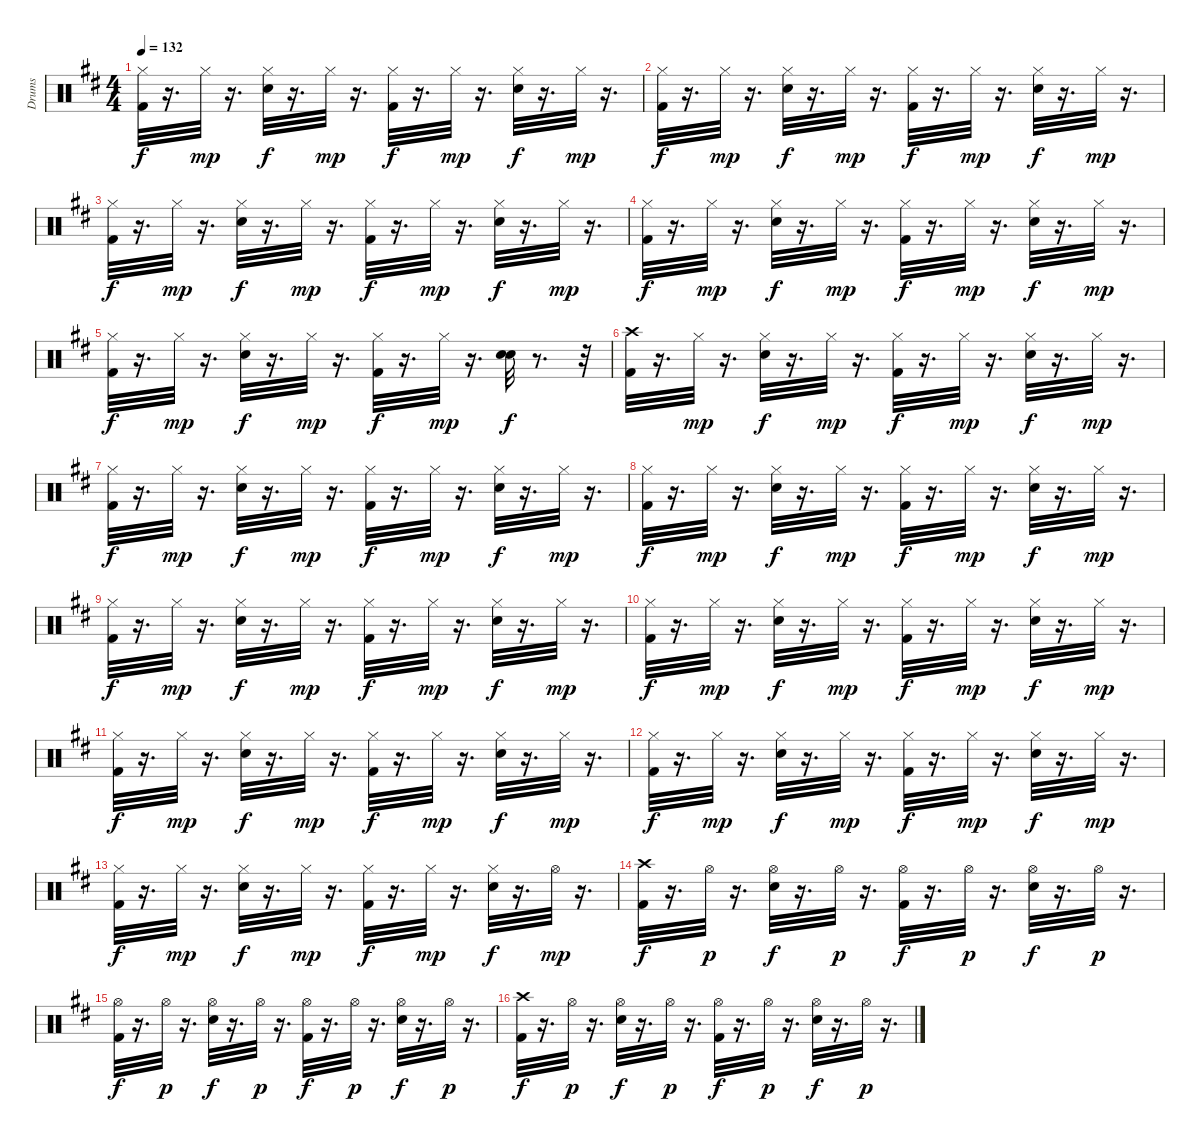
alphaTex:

\track ("Drums" "Drums") {instrument percussion}
\staff {score}
\articulation defaults
\ts (4 4)
\tempo 132
\clef neutral
\ks d
("Hi-Hat (closed)" "Kick (hit) 2").32{dy f} r.16{d} "Hi-Hat (closed)".32{dy mp} r.16{d} ("Hi-Hat (closed)" "Electric Snare (hit)").32{dy f} r.16{d} "Hi-Hat (closed)".32{dy mp} r.16{d} ("Hi-Hat (closed)" "Kick (hit) 2").32{dy f} r.16{d} "Hi-Hat (closed)".32{dy mp} r.16{d} ("Hi-Hat (closed)" "Electric Snare (hit)").32{dy f} r.16{d} "Hi-Hat (closed)".32{dy mp} r.16{d} |
("Hi-Hat (closed)" "Kick (hit) 2").32{dy f} r.16{d} "Hi-Hat (closed)".32{dy mp} r.16{d} ("Hi-Hat (closed)" "Electric Snare (hit)").32{dy f} r.16{d} "Hi-Hat (closed)".32{dy mp} r.16{d} ("Hi-Hat (closed)" "Kick (hit) 2").32{dy f} r.16{d} "Hi-Hat (closed)".32{dy mp} r.16{d} ("Hi-Hat (closed)" "Electric Snare (hit)").32{dy f} r.16{d} "Hi-Hat (closed)".32{dy mp} r.16{d} |
("Hi-Hat (closed)" "Kick (hit) 2").32{dy f} r.16{d} "Hi-Hat (closed)".32{dy mp} r.16{d} ("Hi-Hat (closed)" "Electric Snare (hit)").32{dy f} r.16{d} "Hi-Hat (closed)".32{dy mp} r.16{d} ("Hi-Hat (closed)" "Kick (hit) 2").32{dy f} r.16{d} "Hi-Hat (closed)".32{dy mp} r.16{d} ("Hi-Hat (closed)" "Electric Snare (hit)").32{dy f} r.16{d} "Hi-Hat (closed)".32{dy mp} r.16{d} |
("Hi-Hat (closed)" "Kick (hit) 2").32{dy f} r.16{d} "Hi-Hat (closed)".32{dy mp} r.16{d} ("Hi-Hat (closed)" "Electric Snare (hit)").32{dy f} r.16{d} "Hi-Hat (closed)".32{dy mp} r.16{d} ("Hi-Hat (closed)" "Kick (hit) 2").32{dy f} r.16{d} "Hi-Hat (closed)".32{dy mp} r.16{d} ("Hi-Hat (closed)" "Electric Snare (hit)").32{dy f} r.16{d} "Hi-Hat (closed)".32{dy mp} r.16{d} |
("Hi-Hat (closed)" "Kick (hit) 2").32{dy f} r.16{d} "Hi-Hat (closed)".32{dy mp} r.16{d} ("Hi-Hat (closed)" "Electric Snare (hit)").32{dy f} r.16{d} "Hi-Hat (closed)".32{dy mp} r.16{d} ("Hi-Hat (closed)" "Kick (hit) 2").32{dy f} r.16{d} "Hi-Hat (closed)".32{dy mp} r.16{d} ("Electric Snare (hit)" "Snare (hit) 2").32{dy f} r.8{d} r.32 |
("Crash high (hit)" "Kick (hit) 2").32 r.16{d} "Hi-Hat (closed)".32{dy mp} r.16{d} ("Hi-Hat (closed)" "Electric Snare (hit)").32{dy f} r.16{d} "Hi-Hat (closed)".32{dy mp} r.16{d} ("Hi-Hat (closed)" "Kick (hit) 2").32{dy f} r.16{d} "Hi-Hat (closed)".32{dy mp} r.16{d} ("Hi-Hat (closed)" "Electric Snare (hit)").32{dy f} r.16{d} "Hi-Hat (closed)".32{dy mp} r.16{d} |
("Hi-Hat (closed)" "Kick (hit) 2").32{dy f} r.16{d} "Hi-Hat (closed)".32{dy mp} r.16{d} ("Hi-Hat (closed)" "Electric Snare (hit)").32{dy f} r.16{d} "Hi-Hat (closed)".32{dy mp} r.16{d} ("Hi-Hat (closed)" "Kick (hit) 2").32{dy f} r.16{d} "Hi-Hat (closed)".32{dy mp} r.16{d} ("Hi-Hat (closed)" "Electric Snare (hit)").32{dy f} r.16{d} "Hi-Hat (closed)".32{dy mp} r.16{d} |
("Hi-Hat (closed)" "Kick (hit) 2").32{dy f} r.16{d} "Hi-Hat (closed)".32{dy mp} r.16{d} ("Hi-Hat (closed)" "Electric Snare (hit)").32{dy f} r.16{d} "Hi-Hat (closed)".32{dy mp} r.16{d} ("Hi-Hat (closed)" "Kick (hit) 2").32{dy f} r.16{d} "Hi-Hat (closed)".32{dy mp} r.16{d} ("Hi-Hat (closed)" "Electric Snare (hit)").32{dy f} r.16{d} "Hi-Hat (closed)".32{dy mp} r.16{d} |
("Hi-Hat (closed)" "Kick (hit) 2").32{dy f} r.16{d} "Hi-Hat (closed)".32{dy mp} r.16{d} ("Hi-Hat (closed)" "Electric Snare (hit)").32{dy f} r.16{d} "Hi-Hat (closed)".32{dy mp} r.16{d} ("Hi-Hat (closed)" "Kick (hit) 2").32{dy f} r.16{d} "Hi-Hat (closed)".32{dy mp} r.16{d} ("Hi-Hat (closed)" "Electric Snare (hit)").32{dy f} r.16{d} "Hi-Hat (closed)".32{dy mp} r.16{d} |
("Hi-Hat (closed)" "Kick (hit) 2").32{dy f} r.16{d} "Hi-Hat (closed)".32{dy mp} r.16{d} ("Hi-Hat (closed)" "Electric Snare (hit)").32{dy f} r.16{d} "Hi-Hat (closed)".32{dy mp} r.16{d} ("Hi-Hat (closed)" "Kick (hit) 2").32{dy f} r.16{d} "Hi-Hat (closed)".32{dy mp} r.16{d} ("Hi-Hat (closed)" "Electric Snare (hit)").32{dy f} r.16{d} "Hi-Hat (closed)".32{dy mp} r.16{d} |
("Hi-Hat (closed)" "Kick (hit) 2").32{dy f} r.16{d} "Hi-Hat (closed)".32{dy mp} r.16{d} ("Hi-Hat (closed)" "Electric Snare (hit)").32{dy f} r.16{d} "Hi-Hat (closed)".32{dy mp} r.16{d} ("Hi-Hat (closed)" "Kick (hit) 2").32{dy f} r.16{d} "Hi-Hat (closed)".32{dy mp} r.16{d} ("Hi-Hat (closed)" "Electric Snare (hit)").32{dy f} r.16{d} "Hi-Hat (closed)".32{dy mp} r.16{d} |
("Hi-Hat (closed)" "Kick (hit) 2").32{dy f} r.16{d} "Hi-Hat (closed)".32{dy mp} r.16{d} ("Hi-Hat (closed)" "Electric Snare (hit)").32{dy f} r.16{d} "Hi-Hat (closed)".32{dy mp} r.16{d} ("Hi-Hat (closed)" "Kick (hit) 2").32{dy f} r.16{d} "Hi-Hat (closed)".32{dy mp} r.16{d} ("Hi-Hat (closed)" "Electric Snare (hit)").32{dy f} r.16{d} "Hi-Hat (closed)".32{dy mp} r.16{d} |
("Hi-Hat (closed)" "Kick (hit) 2").32{dy f} r.16{d} "Hi-Hat (closed)".32{dy mp} r.16{d} ("Hi-Hat (closed)" "Electric Snare (hit)").32{dy f} r.16{d} "Hi-Hat (closed)".32{dy mp} r.16{d} ("Kick (hit) 2" "Hi-Hat (closed)").32{dy f} r.16{d} "Hi-Hat (closed)".32{dy mp} r.16{d} ("Hi-Hat (closed)" "Electric Snare (hit)").32{dy f} r.16{d} "Hi-Hat (open)".32{dy mp} r.16{d} |
("Crash high (hit)" "Kick (hit) 2").32{dy f} r.16{d} "Hi-Hat (open)".32{dy p} r.16{d} ("Hi-Hat (open)" "Electric Snare (hit)").32{dy f} r.16{d} "Hi-Hat (open)".32{dy p} r.16{d} ("Hi-Hat (open)" "Kick (hit) 2").32{dy f} r.16{d} "Hi-Hat (open)".32{dy p} r.16{d} ("Hi-Hat (open)" "Electric Snare (hit)").32{dy f} r.16{d} "Hi-Hat (open)".32{dy p} r.16{d} |
("Hi-Hat (open)" "Kick (hit) 2").32{dy f} r.16{d} "Hi-Hat (open)".32{dy p} r.16{d} ("Hi-Hat (open)" "Electric Snare (hit)").32{dy f} r.16{d} "Hi-Hat (open)".32{dy p} r.16{d} ("Hi-Hat (open)" "Kick (hit) 2").32{dy f} r.16{d} "Hi-Hat (open)".32{dy p} r.16{d} ("Hi-Hat (open)" "Electric Snare (hit)").32{dy f} r.16{d} "Hi-Hat (open)".32{dy p} r.16{d} |
("Crash high (hit)" "Kick (hit) 2").32{dy f} r.16{d} "Hi-Hat (open)".32{dy p} r.16{d} ("Hi-Hat (open)" "Electric Snare (hit)").32{dy f} r.16{d} "Hi-Hat (open)".32{dy p} r.16{d} ("Hi-Hat (open)" "Kick (hit) 2").32{dy f} r.16{d} "Hi-Hat (open)".32{dy p} r.16{d} ("Hi-Hat (open)" "Electric Snare (hit)").32{dy f} r.16{d} "Hi-Hat (open)".32{dy p} r.16{d}
